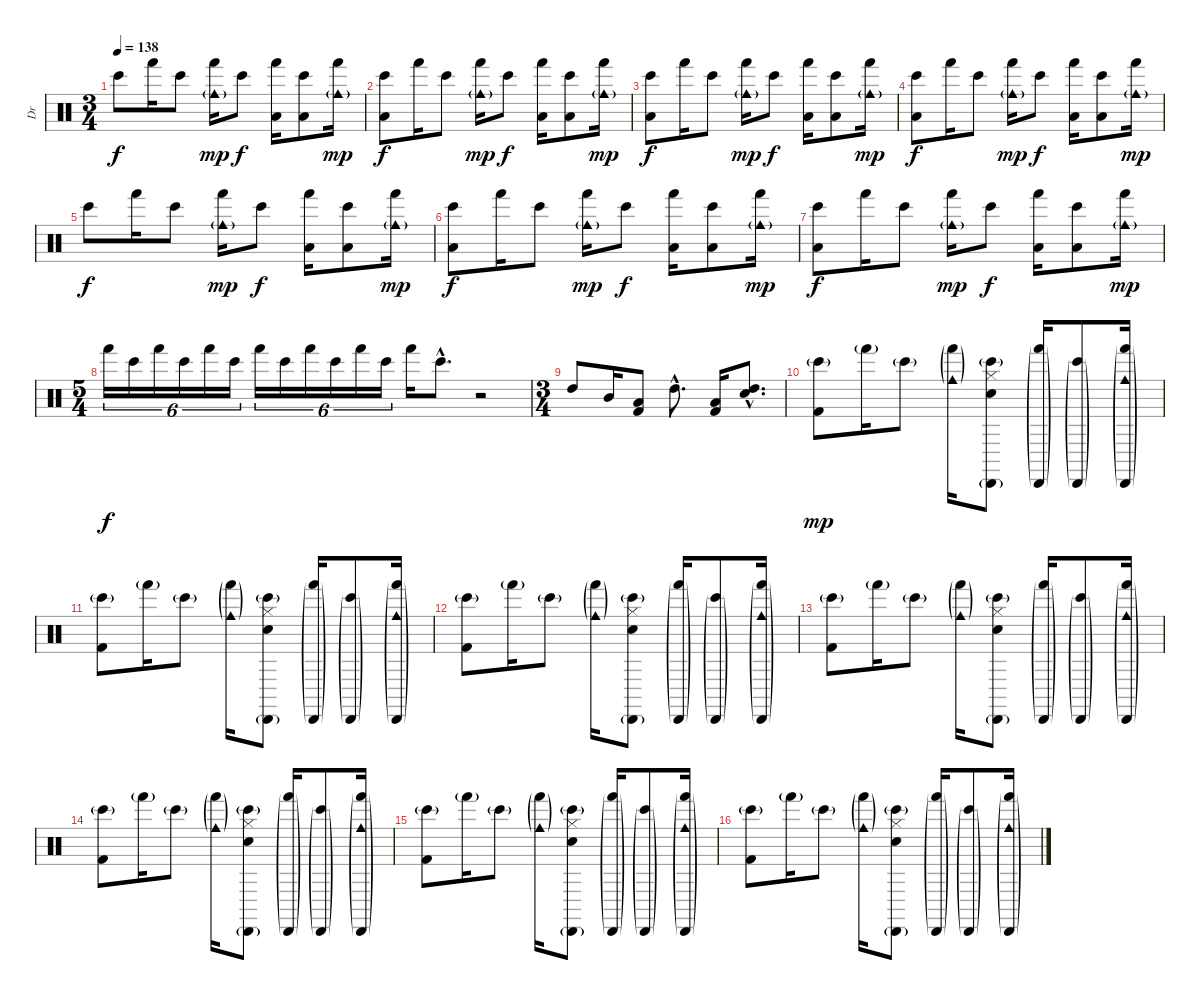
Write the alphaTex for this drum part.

\track ("Dr" "Dr") {instrument percussion}
\staff {score}
\articulation defaults
\ts (3 4)
\tempo 138
\clef neutral
\ks c "Bongo High (hit)".8{dy f} "Hand (hit)".16 "Bongo High (hit)".8
("Cowbell medium (hit)"{g} "Hand (hit)").16{dy mp} "Bongo High (hit)".8{dy f} ("Hand (hit)" "Low Floor Tom (hit)").16 ("Bongo High (hit)" "Low Floor Tom (hit)").8 ("Cowbell medium (hit)"{g} "Hand (hit)").16{dy mp} |
("Bongo High (hit)" "Low Floor Tom (hit)").8{dy f} "Hand (hit)".16 "Bongo High (hit)".8 ("Cowbell medium (hit)"{g} "Hand (hit)").16{dy mp} "Bongo High (hit)".8{dy f} ("Hand (hit)" "Low Floor Tom (hit)").16 ("Bongo High (hit)" "Low Floor Tom (hit)").8 ("Cowbell medium (hit)"{g} "Hand (hit)").16{dy mp} |
("Bongo High (hit)" "Low Floor Tom (hit)").8{dy f} "Hand (hit)".16 "Bongo High (hit)".8 ("Cowbell medium (hit)"{g} "Hand (hit)").16{dy mp} "Bongo High (hit)".8{dy f} ("Hand (hit)" "Low Floor Tom (hit)").16 ("Bongo High (hit)" "Low Floor Tom (hit)").8 ("Cowbell medium (hit)"{g} "Hand (hit)").16{dy mp} |
("Bongo High (hit)" "Low Floor Tom (hit)").8{dy f} "Hand (hit)".16 "Bongo High (hit)".8 ("Cowbell medium (hit)"{g} "Hand (hit)").16{dy mp} "Bongo High (hit)".8{dy f} ("Hand (hit)" "Low Floor Tom (hit)").16 ("Bongo High (hit)" "Low Floor Tom (hit)").8 ("Cowbell medium (hit)"{g} "Hand (hit)").16{dy mp} |
"Bongo High (hit)".8{dy f} "Hand (hit)".16 "Bongo High (hit)".8 ("Cowbell medium (hit)"{g} "Hand (hit)").16{dy mp} "Bongo High (hit)".8{dy f} ("Hand (hit)" "Low Floor Tom (hit)").16 ("Bongo High (hit)" "Low Floor Tom (hit)").8 ("Cowbell medium (hit)"{g} "Hand (hit)").16{dy mp} |
("Bongo High (hit)" "Low Floor Tom (hit)").8{dy f} "Hand (hit)".16 "Bongo High (hit)".8 ("Cowbell medium (hit)"{g} "Hand (hit)").16{dy mp} "Bongo High (hit)".8{dy f} ("Hand (hit)" "Low Floor Tom (hit)").16 ("Bongo High (hit)" "Low Floor Tom (hit)").8 ("Cowbell medium (hit)"{g} "Hand (hit)").16{dy mp} |
("Bongo High (hit)" "Low Floor Tom (hit)").8{dy f} "Hand (hit)".16 "Bongo High (hit)".8 ("Cowbell medium (hit)"{g} "Hand (hit)").16{dy mp} "Bongo High (hit)".8{dy f} ("Hand (hit)" "Low Floor Tom (hit)").16 ("Bongo High (hit)" "Low Floor Tom (hit)").8 ("Cowbell medium (hit)"{g} "Hand (hit)").16{dy mp} |
\ts (5 4)
"Hand (hit)".16{tu (6 4) dy f} "Bongo High (hit)".16{tu (6 4)} "Hand (hit)".16{tu (6 4)} "Bongo High (hit)".16{tu (6 4)} "Hand (hit)".16{tu (6 4)} "Bongo High (hit)".16{tu (6 4)} "Hand (hit)".16{tu (6 4)} "Bongo High (hit)".16{tu (6 4)} "Hand (hit)".16{tu (6 4)} "Bongo High (hit)".16{tu (6 4)} "Hand (hit)".16{tu (6 4)} "Bongo High (hit)".16{tu (6 4)} "Hand (hit)".16 "Bongo High (hit)"{hac}.8{d} r.2 |
\ts (3 4)
"High Tom (hit)".8 "Mid Tom (hit)".16 ("Low Tom (hit)" "Kick (hit) 2").8 "High Tom (hit)"{hac}.8{d} ("Low Tom (hit)" "Kick (hit) 2").16 ("Electric Snare (hit)"{hac} "High Tom (hit)"{hac}).8{d} |
("Bongo High (hit)"{g} "Kick (hit) 2").8{dy mp} "Hand (hit)"{g}.16 "Bongo High (hit)"{g}.8 ("Cowbell medium (hit)"{g} "Hand (hit)"{g}).16 ("Cabasa (hit)"{g} "Hi-Hat (closed)" "Electric Snare (hit)" "Bongo High (hit)"{g}).8 ("Cabasa (hit)"{g} "Hand (hit)"{g}).16 ("Cabasa (hit)"{g} "Bongo High (hit)"{g}).8 ("Cabasa (hit)"{g} "Cowbell medium (hit)"{g} "Hand (hit)"{g}).16 |
("Bongo High (hit)"{g} "Kick (hit) 2").8 "Hand (hit)"{g}.16 "Bongo High (hit)"{g}.8 ("Cowbell medium (hit)"{g} "Hand (hit)"{g}).16 ("Cabasa (hit)"{g} "Hi-Hat (closed)" "Electric Snare (hit)" "Bongo High (hit)"{g}).8 ("Cabasa (hit)"{g} "Hand (hit)"{g}).16 ("Cabasa (hit)"{g} "Bongo High (hit)"{g}).8 ("Cabasa (hit)"{g} "Cowbell medium (hit)"{g} "Hand (hit)"{g}).16 |
("Bongo High (hit)"{g} "Kick (hit) 2").8 "Hand (hit)"{g}.16 "Bongo High (hit)"{g}.8 ("Cowbell medium (hit)"{g} "Hand (hit)"{g}).16 ("Cabasa (hit)"{g} "Hi-Hat (closed)" "Electric Snare (hit)" "Bongo High (hit)"{g}).8 ("Cabasa (hit)"{g} "Hand (hit)"{g}).16 ("Cabasa (hit)"{g} "Bongo High (hit)"{g}).8 ("Cabasa (hit)"{g} "Cowbell medium (hit)"{g} "Hand (hit)"{g}).16 |
("Bongo High (hit)"{g} "Kick (hit) 2").8 "Hand (hit)"{g}.16 "Bongo High (hit)"{g}.8 ("Cowbell medium (hit)"{g} "Hand (hit)"{g}).16 ("Cabasa (hit)"{g} "Hi-Hat (closed)" "Electric Snare (hit)" "Bongo High (hit)"{g}).8 ("Cabasa (hit)"{g} "Hand (hit)"{g}).16 ("Cabasa (hit)"{g} "Bongo High (hit)"{g}).8 ("Cabasa (hit)"{g} "Cowbell medium (hit)"{g} "Hand (hit)"{g}).16 |
("Bongo High (hit)"{g} "Kick (hit) 2").8 "Hand (hit)"{g}.16 "Bongo High (hit)"{g}.8 ("Cowbell medium (hit)"{g} "Hand (hit)"{g}).16 ("Cabasa (hit)"{g} "Hi-Hat (closed)" "Electric Snare (hit)" "Bongo High (hit)"{g}).8 ("Cabasa (hit)"{g} "Hand (hit)"{g}).16 ("Cabasa (hit)"{g} "Bongo High (hit)"{g}).8 ("Cabasa (hit)"{g} "Cowbell medium (hit)"{g} "Hand (hit)"{g}).16 |
("Bongo High (hit)"{g} "Kick (hit) 2").8 "Hand (hit)"{g}.16 "Bongo High (hit)"{g}.8 ("Cowbell medium (hit)"{g} "Hand (hit)"{g}).16 ("Cabasa (hit)"{g} "Hi-Hat (closed)" "Electric Snare (hit)" "Bongo High (hit)"{g}).8 ("Cabasa (hit)"{g} "Hand (hit)"{g}).16 ("Cabasa (hit)"{g} "Bongo High (hit)"{g}).8 ("Cabasa (hit)"{g} "Cowbell medium (hit)"{g} "Hand (hit)"{g}).16 |
("Bongo High (hit)"{g} "Kick (hit) 2").8 "Hand (hit)"{g}.16 "Bongo High (hit)"{g}.8 ("Cowbell medium (hit)"{g} "Hand (hit)"{g}).16 ("Cabasa (hit)"{g} "Hi-Hat (closed)" "Electric Snare (hit)" "Bongo High (hit)"{g}).8 ("Cabasa (hit)"{g} "Hand (hit)"{g}).16 ("Cabasa (hit)"{g} "Bongo High (hit)"{g}).8 ("Cabasa (hit)"{g} "Cowbell medium (hit)"{g} "Hand (hit)"{g}).16
